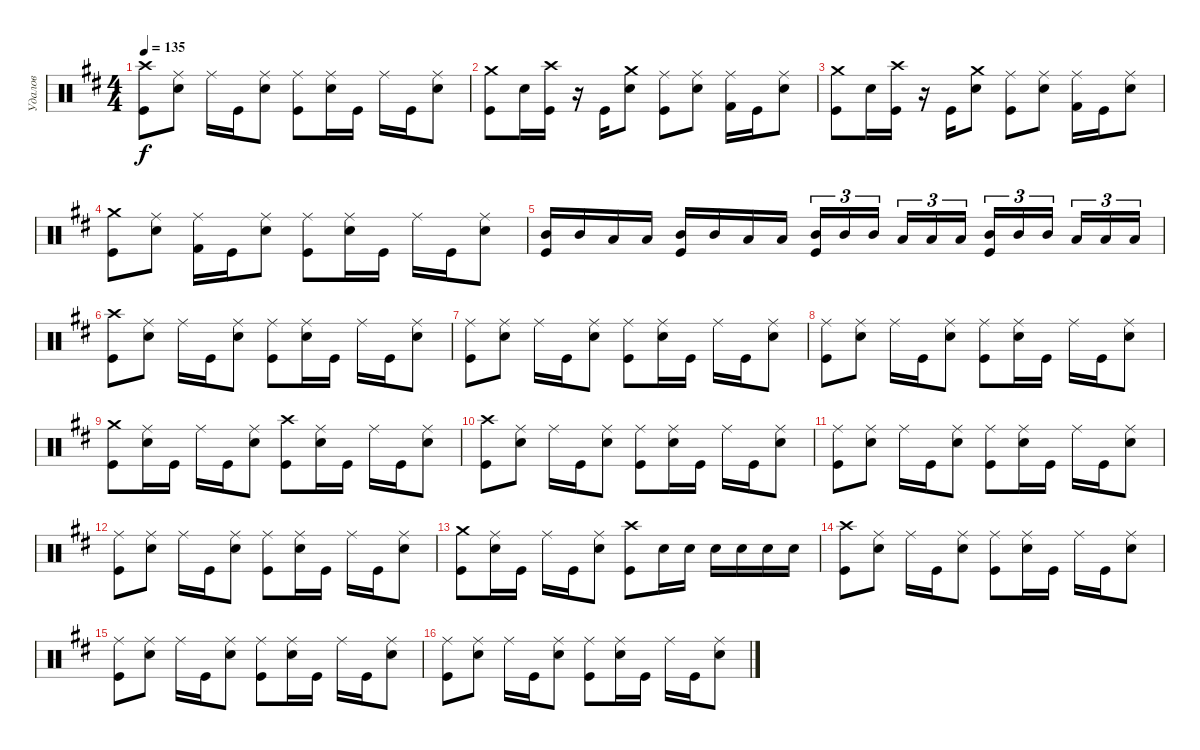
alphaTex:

\track ("Удалов" "Удалов") {instrument percussion}
\staff {score}
\articulation defaults
\ts (4 4)
\tempo 135
\clef neutral
\ks d
("Kick (hit)" "Crash high (hit)").8{dy f} ("Electric Snare (hit)" "Ride (middle)").8 "Ride (middle)".16 "Kick (hit)".16 ("Electric Snare (hit)" "Ride (middle)").8 ("Ride (middle)" "Kick (hit)").8 ("Ride (middle)" "Electric Snare (hit)").16 "Kick (hit)".16 "Ride (middle)".16 "Kick (hit)".16 ("Electric Snare (hit)" "Ride (middle)").8 |
("Kick (hit)" "Crash medium (hit)").8 "Electric Snare (hit)".16 ("Kick (hit)" "Crash high (hit)").16 r.16 "Kick (hit)".16 ("Electric Snare (hit)" "Crash medium (hit)").8 ("Kick (hit)" "Ride (middle)").8 ("Ride (middle)" "Electric Snare (hit)").8 ("Kick (hit) 2" "Ride (middle)").16 "Kick (hit)".16 ("Electric Snare (hit)" "Ride (middle)").8 |
("Kick (hit)" "Crash medium (hit)").8 "Electric Snare (hit)".16 ("Kick (hit)" "Crash high (hit)").16 r.16 "Kick (hit)".16 ("Electric Snare (hit)" "Crash medium (hit)").8 ("Kick (hit)" "Ride (middle)").8 ("Ride (middle)" "Electric Snare (hit)").8 ("Kick (hit) 2" "Ride (middle)").16 "Kick (hit)".16 ("Electric Snare (hit)" "Ride (middle)").8 |
("Kick (hit)" "Crash medium (hit)").8 ("Ride (middle)" "Electric Snare (hit)").8 ("Kick (hit) 2" "Ride (middle)").16 "Kick (hit)".16 ("Electric Snare (hit)" "Ride (middle)").8 ("Ride (middle)" "Kick (hit)").8 ("Ride (middle)" "Electric Snare (hit)").16 "Kick (hit)".16 "Ride (middle)".16 "Kick (hit)".16 ("Electric Snare (hit)" "Ride (middle)").8 |
("Kick (hit)" "Mid Tom (hit)").16 "Mid Tom (hit)".16 "Low Tom (hit)".16 "Low Tom (hit)".16 ("Mid Tom (hit)" "Kick (hit)").16 "Mid Tom (hit)".16 "Low Tom (hit)".16 "Low Tom (hit)".16 ("Mid Tom (hit)" "Kick (hit)").16{tu (3 2)} "Mid Tom (hit)".16{tu (3 2)} "Mid Tom (hit)".16{tu (3 2) beam splitsecondary} "Low Tom (hit)".16{tu (3 2)} "Low Tom (hit)".16{tu (3 2)} "Low Tom (hit)".16{tu (3 2)} ("Mid Tom (hit)" "Kick (hit)").16{tu (3 2)} "Mid Tom (hit)".16{tu (3 2)} "Mid Tom (hit)".16{tu (3 2) beam splitsecondary} "Low Tom (hit)".16{tu (3 2)} "Low Tom (hit)".16{tu (3 2)} "Low Tom (hit)".16{tu (3 2)} |
("Kick (hit)" "Crash high (hit)").8 ("Electric Snare (hit)" "Ride (middle)").8 "Ride (middle)".16 "Kick (hit)".16 ("Electric Snare (hit)" "Ride (middle)").8 ("Ride (middle)" "Kick (hit)").8 ("Ride (middle)" "Electric Snare (hit)").16 "Kick (hit)".16 "Ride (middle)".16 "Kick (hit)".16 ("Electric Snare (hit)" "Ride (middle)").8 |
("Kick (hit)" "Ride (middle)").8 ("Electric Snare (hit)" "Ride (middle)").8 "Ride (middle)".16 "Kick (hit)".16 ("Electric Snare (hit)" "Ride (middle)").8 ("Ride (middle)" "Kick (hit)").8 ("Ride (middle)" "Electric Snare (hit)").16 "Kick (hit)".16 "Ride (middle)".16 "Kick (hit)".16 ("Electric Snare (hit)" "Ride (middle)").8 |
("Kick (hit)" "Ride (middle)").8 ("Electric Snare (hit)" "Ride (middle)").8 "Ride (middle)".16 "Kick (hit)".16 ("Electric Snare (hit)" "Ride (middle)").8 ("Ride (middle)" "Kick (hit)").8 ("Ride (middle)" "Electric Snare (hit)").16 "Kick (hit)".16 "Ride (middle)".16 "Kick (hit)".16 ("Electric Snare (hit)" "Ride (middle)").8 |
("Crash medium (hit)" "Kick (hit)").8 ("Ride (middle)" "Electric Snare (hit)").16 "Kick (hit)".16 "Ride (middle)".16 "Kick (hit)".16 ("Electric Snare (hit)" "Ride (middle)").8 ("Crash high (hit)" "Kick (hit)").8 ("Ride (middle)" "Electric Snare (hit)").16 "Kick (hit)".16 "Ride (middle)".16 "Kick (hit)".16 ("Electric Snare (hit)" "Ride (middle)").8 |
("Kick (hit)" "Crash high (hit)").8 ("Electric Snare (hit)" "Ride (middle)").8 "Ride (middle)".16 "Kick (hit)".16 ("Electric Snare (hit)" "Ride (middle)").8 ("Ride (middle)" "Kick (hit)").8 ("Ride (middle)" "Electric Snare (hit)").16 "Kick (hit)".16 "Ride (middle)".16 "Kick (hit)".16 ("Electric Snare (hit)" "Ride (middle)").8 |
("Kick (hit)" "Ride (middle)").8 ("Electric Snare (hit)" "Ride (middle)").8 "Ride (middle)".16 "Kick (hit)".16 ("Electric Snare (hit)" "Ride (middle)").8 ("Ride (middle)" "Kick (hit)").8 ("Ride (middle)" "Electric Snare (hit)").16 "Kick (hit)".16 "Ride (middle)".16 "Kick (hit)".16 ("Electric Snare (hit)" "Ride (middle)").8 |
("Kick (hit)" "Ride (middle)").8 ("Electric Snare (hit)" "Ride (middle)").8 "Ride (middle)".16 "Kick (hit)".16 ("Electric Snare (hit)" "Ride (middle)").8 ("Ride (middle)" "Kick (hit)").8 ("Ride (middle)" "Electric Snare (hit)").16 "Kick (hit)".16 "Ride (middle)".16 "Kick (hit)".16 ("Electric Snare (hit)" "Ride (middle)").8 |
("Crash medium (hit)" "Kick (hit)").8 ("Ride (middle)" "Electric Snare (hit)").16 "Kick (hit)".16 "Ride (middle)".16 "Kick (hit)".16 ("Electric Snare (hit)" "Ride (middle)").8 ("Crash high (hit)" "Kick (hit)").8 "Electric Snare (hit)".16 "Electric Snare (hit)".16 "Electric Snare (hit)".16 "Electric Snare (hit)".16 "Electric Snare (hit)".16 "Electric Snare (hit)".16 |
("Kick (hit)" "Crash high (hit)").8 ("Electric Snare (hit)" "Ride (middle)").8 "Ride (middle)".16 "Kick (hit)".16 ("Electric Snare (hit)" "Ride (middle)").8 ("Ride (middle)" "Kick (hit)").8 ("Ride (middle)" "Electric Snare (hit)").16 "Kick (hit)".16 "Ride (middle)".16 "Kick (hit)".16 ("Electric Snare (hit)" "Ride (middle)").8 |
("Kick (hit)" "Ride (middle)").8 ("Electric Snare (hit)" "Ride (middle)").8 "Ride (middle)".16 "Kick (hit)".16 ("Electric Snare (hit)" "Ride (middle)").8 ("Ride (middle)" "Kick (hit)").8 ("Ride (middle)" "Electric Snare (hit)").16 "Kick (hit)".16 "Ride (middle)".16 "Kick (hit)".16 ("Electric Snare (hit)" "Ride (middle)").8 |
("Kick (hit)" "Ride (middle)").8 ("Electric Snare (hit)" "Ride (middle)").8 "Ride (middle)".16 "Kick (hit)".16 ("Electric Snare (hit)" "Ride (middle)").8 ("Ride (middle)" "Kick (hit)").8 ("Ride (middle)" "Electric Snare (hit)").16 "Kick (hit)".16 "Ride (middle)".16 "Kick (hit)".16 ("Electric Snare (hit)" "Ride (middle)").8
